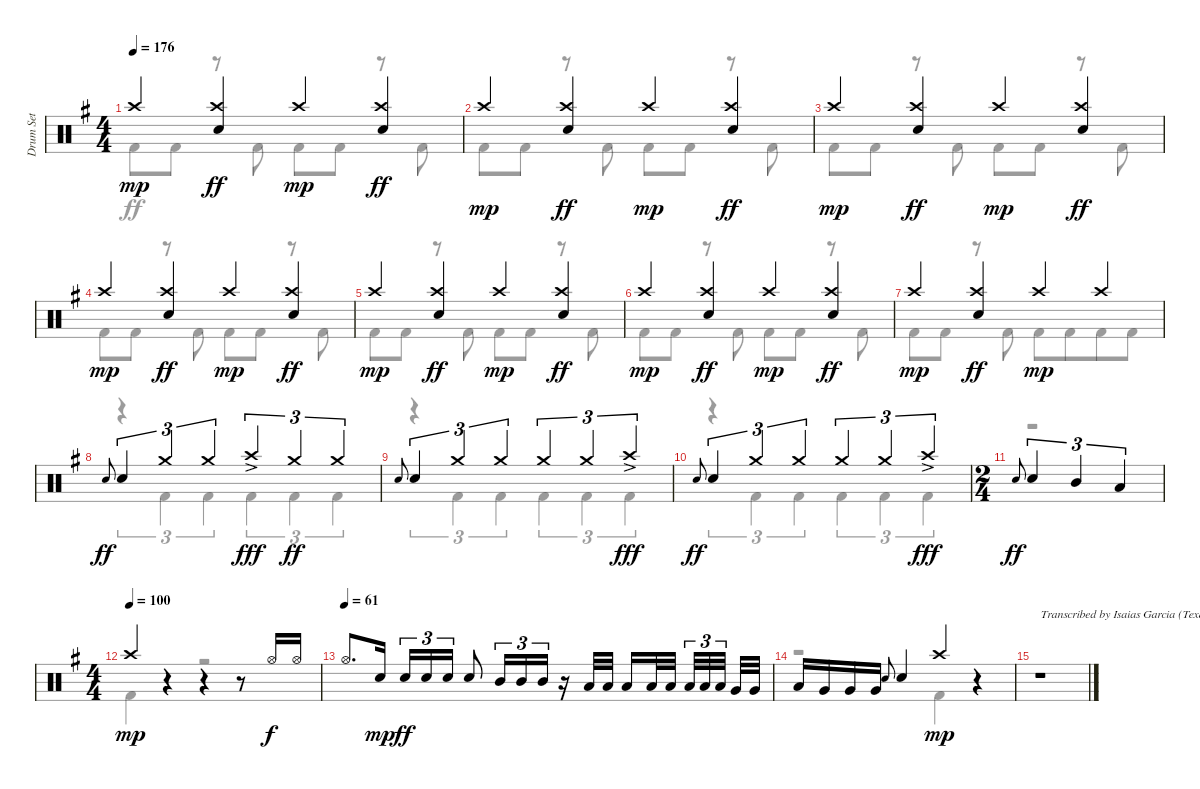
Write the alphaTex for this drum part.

\track ("Drum Set" "Drum Set") {instrument percussion}
\staff {score}
\articulation defaults
\voice
\ts (4 4)
\tempo 176
\clef neutral
\ks eminor "Crash high (hit)".4{dy mp}
("Crash high (hit)" "Electric Snare (hit)").4{dy ff} "Crash high (hit)".4{dy mp} ("Crash high (hit)" "Electric Snare (hit)").4{dy ff} |
"Crash high (hit)".4{dy mp} ("Crash high (hit)" "Electric Snare (hit)").4{dy ff} "Crash high (hit)".4{dy mp} ("Crash high (hit)" "Electric Snare (hit)").4{dy ff} |
"Crash high (hit)".4{dy mp} ("Crash high (hit)" "Electric Snare (hit)").4{dy ff} "Crash high (hit)".4{dy mp} ("Crash high (hit)" "Electric Snare (hit)").4{dy ff} |
"Crash high (hit)".4{dy mp} ("Crash high (hit)" "Electric Snare (hit)").4{dy ff} "Crash high (hit)".4{dy mp} ("Crash high (hit)" "Electric Snare (hit)").4{dy ff} |
"Crash high (hit)".4{dy mp} ("Crash high (hit)" "Electric Snare (hit)").4{dy ff} "Crash high (hit)".4{dy mp} ("Crash high (hit)" "Electric Snare (hit)").4{dy ff} |
"Crash high (hit)".4{dy mp} ("Crash high (hit)" "Electric Snare (hit)").4{dy ff} "Crash high (hit)".4{dy mp} ("Crash high (hit)" "Electric Snare (hit)").4{dy ff} |
"Crash high (hit)".4{dy mp} ("Crash high (hit)" "Electric Snare (hit)").4{dy ff} "Crash high (hit)".4{dy mp} "Crash high (hit)".4 |
"Electric Snare (hit)".8{gr onbeat dy ff} "Electric Snare (hit)".4{tu (3 2)} "Crash medium (hit)".4{tu (3 2)} "Crash medium (hit)".4{tu (3 2)} "Crash high (hit)"{ac}.4{tu (3 2) dy fff} "Crash medium (hit)".4{tu (3 2) dy ff} "Crash medium (hit)".4{tu (3 2)} |
"Electric Snare (hit)".8{gr onbeat} "Electric Snare (hit)".4{tu (3 2)} "Crash medium (hit)".4{tu (3 2)} "Crash medium (hit)".4{tu (3 2)} "Crash medium (hit)".4{tu (3 2)} "Crash medium (hit)".4{tu (3 2)} "Crash high (hit)"{ac}.4{tu (3 2) dy fff} |
\ks g "Electric Snare (hit)".8{gr onbeat dy ff} "Electric Snare (hit)".4{tu (3 2)} "Crash medium (hit)".4{tu (3 2)} "Crash medium (hit)".4{tu (3 2)} "Crash medium (hit)".4{tu (3 2)} "Crash medium (hit)".4{tu (3 2)} "Crash high (hit)"{ac}.4{tu (3 2) dy fff}
|
\ts (2 4)
"Electric Snare (hit)".8{gr onbeat dy ff} "Electric Snare (hit)".4{tu (3 2)} "Mid Tom (hit)".4{tu (3 2)} "Low Tom (hit)".4{tu (3 2)} |
\ts (4 4)
\tempo (100)
"Crash high (hit)".4{dy mp} r.4 r.4 r.8 "Hi-Hat (open)".16{dy f} "Hi-Hat (open)".16 |
\tempo (61)
"Hi-Hat (open)".8{d beam Up} "Snare (hit) 2".16{dy mp beam Up} "Electric Snare (hit)".16{tu (3 2) dy ff beam Up} "Electric Snare (hit)".16{tu (3 2) beam Up} "Electric Snare (hit)".16{tu (3 2) beam Up} "Electric Snare (hit)".8{beam Up} "Mid Tom (hit)".16{tu (3 2) beam Up} "Mid Tom (hit)".16{tu (3 2) beam Up} "Mid Tom (hit)".16{tu (3 2) beam Up} r.16 "Low Tom (hit)".32{beam Up} "Low Tom (hit)".32{beam Up} "Low Tom (hit)".16{beam Up} "Low Tom (hit)".32{beam Up} "Low Tom (hit)".32{beam Up beam splitsecondary} "Low Tom (hit)".32{tu (3 2) beam Up} "Low Tom (hit)".32{tu (3 2) beam Up} "Low Tom (hit)".32{tu (3 2) beam Up beam splitsecondary} "Very Low Tom (hit)".32{beam Up} "Very Low Tom (hit)".32{beam Up} |
"Low Tom (hit)".16 "Very Low Tom (hit)".16 "Very Low Tom (hit)".16 "Very Low Tom (hit)".16 "Electric Snare (hit)".8{gr onbeat} "Electric Snare (hit)".4 "Crash high (hit)".4{dy mp} r.4 |
r.1{txt "Transcribed by Isaias Garcia (TexasFury)"}
\voice
\clef neutral
\ottava regular
\simile none
\ks eminor "Kick (hit) 2".8{dy ff} "Kick (hit) 2".8
r.8 "Kick (hit) 2".8 "Kick (hit) 2".8 "Kick (hit) 2".8 r.8 "Kick (hit) 2".8 |
"Kick (hit) 2".8 "Kick (hit) 2".8 r.8 "Kick (hit) 2".8 "Kick (hit) 2".8 "Kick (hit) 2".8 r.8 "Kick (hit) 2".8 |
"Kick (hit) 2".8 "Kick (hit) 2".8 r.8 "Kick (hit) 2".8 "Kick (hit) 2".8 "Kick (hit) 2".8 r.8 "Kick (hit) 2".8 |
"Kick (hit) 2".8 "Kick (hit) 2".8 r.8 "Kick (hit) 2".8 "Kick (hit) 2".8 "Kick (hit) 2".8 r.8 "Kick (hit) 2".8 |
"Kick (hit) 2".8 "Kick (hit) 2".8 r.8 "Kick (hit) 2".8 "Kick (hit) 2".8 "Kick (hit) 2".8 r.8 "Kick (hit) 2".8 |
"Kick (hit) 2".8 "Kick (hit) 2".8 r.8 "Kick (hit) 2".8 "Kick (hit) 2".8 "Kick (hit) 2".8 r.8 "Kick (hit) 2".8 |
"Kick (hit) 2".8 "Kick (hit) 2".8 r.8 "Kick (hit) 2".8 "Kick (hit) 2".8 "Kick (hit) 2".8{beam merge} "Kick (hit) 2".8 "Kick (hit) 2".8 |
r.4{tu (3 2)} "Kick (hit) 2".4{tu (3 2)} "Kick (hit) 2".4{tu (3 2)} "Kick (hit) 2".4{tu (3 2)} "Kick (hit) 2".4{tu (3 2)} "Kick (hit) 2".4{tu (3 2)} |
r.4{tu (3 2)} "Kick (hit) 2".4{tu (3 2)} "Kick (hit) 2".4{tu (3 2)} "Kick (hit) 2".4{tu (3 2)} "Kick (hit) 2".4{tu (3 2)} "Kick (hit) 2".4{tu (3 2)} |
\ks g
r.4{tu (3 2)} "Kick (hit) 2".4{tu (3 2)} "Kick (hit) 2".4{tu (3 2)} "Kick (hit) 2".4{tu (3 2)} "Kick (hit) 2".4{tu (3 2)} "Kick (hit) 2".4{tu (3 2)} |
r.2 |
"Kick (hit) 2".4 r.4 r.2 |
|
r.2 "Kick (hit) 2".4 r.4 |
